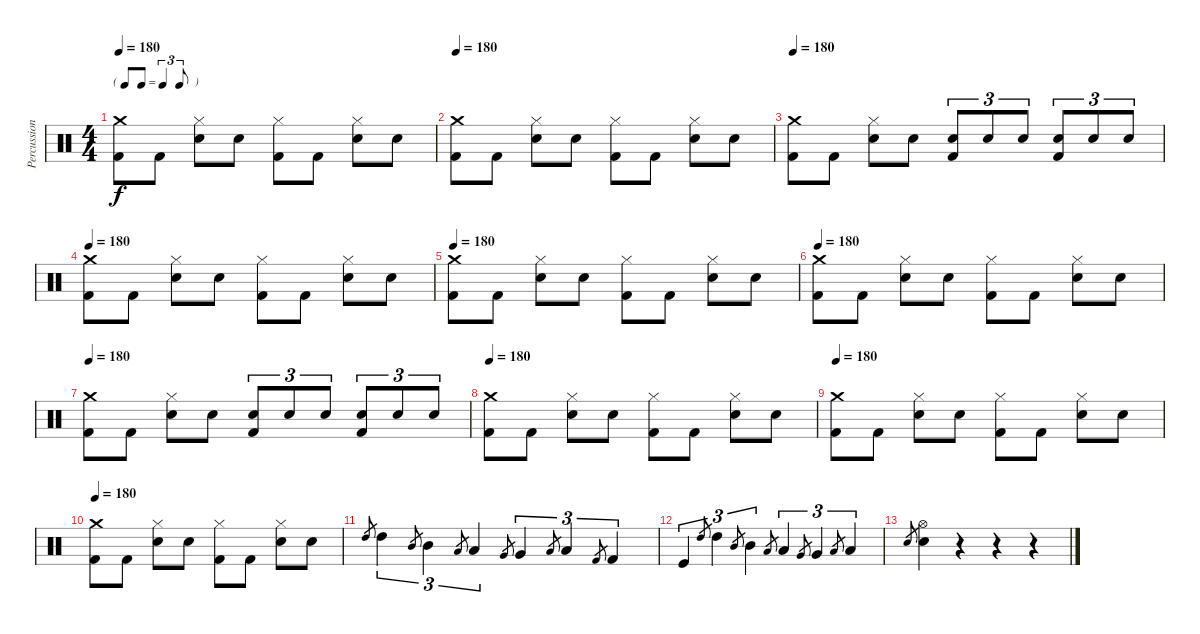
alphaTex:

\track ("Percussions" "Percussion") {instrument percussion}
\staff {score}
\articulation defaults
\ts (4 4)
\tf triplet8th
\tempo 180
\clef neutral
\ks c
("Crash medium (hit)" "Kick (hit) 2").8{dy f} "Kick (hit) 2".8 ("Hi-Hat (closed)" "Electric Snare (hit)").8 "Electric Snare (hit)".8 ("Hi-Hat (closed)" "Kick (hit) 2").8 "Kick (hit) 2".8 ("Hi-Hat (closed)" "Electric Snare (hit)").8 "Electric Snare (hit)".8 |
\tempo 180
("Crash medium (hit)" "Kick (hit) 2").8 "Kick (hit) 2".8 ("Hi-Hat (closed)" "Electric Snare (hit)").8 "Electric Snare (hit)".8 ("Hi-Hat (closed)" "Kick (hit) 2").8 "Kick (hit) 2".8 ("Hi-Hat (closed)" "Electric Snare (hit)").8 "Electric Snare (hit)".8 |
\tempo 180
("Crash medium (hit)" "Kick (hit) 2").8 "Kick (hit) 2".8 ("Hi-Hat (closed)" "Electric Snare (hit)").8 "Electric Snare (hit)".8 ("Electric Snare (hit)" "Kick (hit) 2").8{tu (3 2)} "Electric Snare (hit)".8{tu (3 2)} "Electric Snare (hit)".8{tu (3 2)} ("Electric Snare (hit)" "Kick (hit) 2").8{tu (3 2)} "Electric Snare (hit)".8{tu (3 2)} "Electric Snare (hit)".8{tu (3 2)} |
\tempo 180
("Crash medium (hit)" "Kick (hit) 2").8 "Kick (hit) 2".8 ("Hi-Hat (closed)" "Electric Snare (hit)").8 "Electric Snare (hit)".8 ("Hi-Hat (closed)" "Kick (hit) 2").8 "Kick (hit) 2".8 ("Hi-Hat (closed)" "Electric Snare (hit)").8 "Electric Snare (hit)".8 |
\tempo 180
("Crash medium (hit)" "Kick (hit) 2").8 "Kick (hit) 2".8 ("Hi-Hat (closed)" "Electric Snare (hit)").8 "Electric Snare (hit)".8 ("Hi-Hat (closed)" "Kick (hit) 2").8 "Kick (hit) 2".8 ("Hi-Hat (closed)" "Electric Snare (hit)").8 "Electric Snare (hit)".8 |
\tempo 180
("Crash medium (hit)" "Kick (hit) 2").8 "Kick (hit) 2".8 ("Hi-Hat (closed)" "Electric Snare (hit)").8 "Electric Snare (hit)".8 ("Hi-Hat (closed)" "Kick (hit) 2").8 "Kick (hit) 2".8 ("Hi-Hat (closed)" "Electric Snare (hit)").8 "Electric Snare (hit)".8 |
\tempo 180
("Crash medium (hit)" "Kick (hit) 2").8 "Kick (hit) 2".8 ("Hi-Hat (closed)" "Electric Snare (hit)").8 "Electric Snare (hit)".8 ("Electric Snare (hit)" "Kick (hit) 2").8{tu (3 2)} "Electric Snare (hit)".8{tu (3 2)} "Electric Snare (hit)".8{tu (3 2)} ("Electric Snare (hit)" "Kick (hit) 2").8{tu (3 2)} "Electric Snare (hit)".8{tu (3 2)} "Electric Snare (hit)".8{tu (3 2)} |
\tempo 180
("Crash medium (hit)" "Kick (hit) 2").8 "Kick (hit) 2".8 ("Hi-Hat (closed)" "Electric Snare (hit)").8 "Electric Snare (hit)".8 ("Hi-Hat (closed)" "Kick (hit) 2").8 "Kick (hit) 2".8 ("Hi-Hat (closed)" "Electric Snare (hit)").8 "Electric Snare (hit)".8 |
\tempo 180
("Crash medium (hit)" "Kick (hit) 2").8 "Kick (hit) 2".8 ("Hi-Hat (closed)" "Electric Snare (hit)").8 "Electric Snare (hit)".8 ("Hi-Hat (closed)" "Kick (hit) 2").8 "Kick (hit) 2".8 ("Hi-Hat (closed)" "Electric Snare (hit)").8 "Electric Snare (hit)".8 |
\tempo 180
("Crash medium (hit)" "Kick (hit) 2").8 "Kick (hit) 2".8 ("Hi-Hat (closed)" "Electric Snare (hit)").8 "Electric Snare (hit)".8 ("Hi-Hat (closed)" "Kick (hit) 2").8 "Kick (hit) 2".8 ("Hi-Hat (closed)" "Electric Snare (hit)").8 "Electric Snare (hit)".8 |
"High Tom (hit)".8{gr} "High Tom (hit)".4{tu (3 2)} "Mid Tom (hit)".8{gr} "Mid Tom (hit)".4{tu (3 2)} "Low Tom (hit)".8{gr} "Low Tom (hit)".4{tu (3 2)} "Very Low Tom (hit)".8{gr} "Very Low Tom (hit)".4{tu (3 2)} "Low Floor Tom (hit)".8{gr} "Low Floor Tom (hit)".4{tu (3 2)} "Kick (hit) 2".8{gr} "Kick (hit) 2".4{tu (3 2)} |
"Kick (hit)".4{tu (3 2)} "High Tom (hit)".8{gr} "High Tom (hit)".4{tu (3 2)} "Mid Tom (hit)".8{gr} "Mid Tom (hit)".4{tu (3 2)} "Low Tom (hit)".8{gr} "Low Tom (hit)".4{tu (3 2)} "Very Low Tom (hit)".8{gr} "Very Low Tom (hit)".4{tu (3 2)} "Low Floor Tom (hit)".8{gr} "Low Floor Tom (hit)".4{tu (3 2)} |
"Electric Snare (hit)".8{gr} ("Hi-Hat (open)" "Electric Snare (hit)").4 r.4 r.4 r.4
